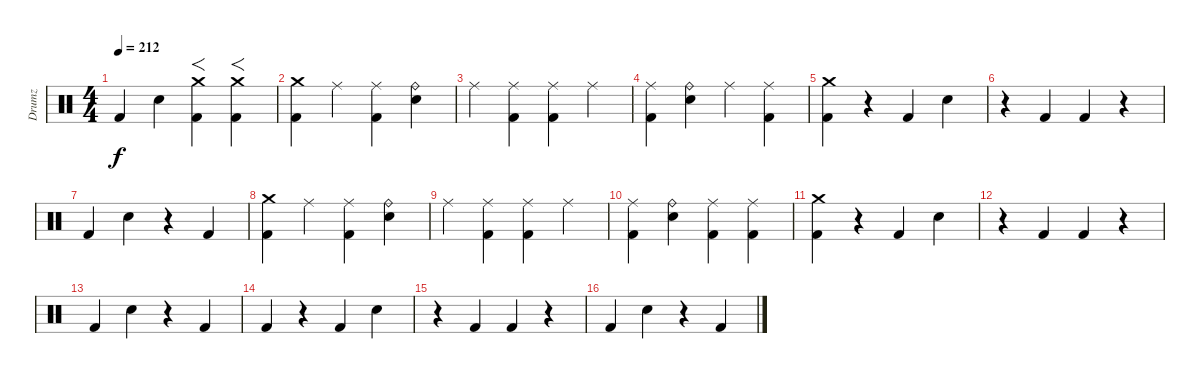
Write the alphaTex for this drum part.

\track ("Drumz" "Drumz") {instrument percussion}
\staff {score}
\articulation defaults
\ts (4 4)
\tempo 212
\clef neutral
\ks c "Kick (hit) 2".4{dy f} "Snare (hit) 2".4
("Kick (hit) 2" "Crash medium (hit)").4{f} ("Kick (hit) 2" "Crash medium (hit)").4{f} |
("Kick (hit) 2" "Crash medium (hit)").4 "Ride (middle)".4 ("Kick (hit) 2" "Ride (middle)").4 ("Snare (hit) 2" "Ride (bell)").4 |
"Ride (middle)".4 ("Kick (hit) 2" "Ride (middle)").4 ("Kick (hit) 2" "Ride (middle)").4 "Ride (middle)".4 |
("Kick (hit) 2" "Ride (middle)").4 ("Snare (hit) 2" "Ride (bell)").4 "Ride (middle)".4 ("Kick (hit) 2" "Ride (middle)").4 |
("Kick (hit) 2" "Crash medium (hit)").4 r.4 "Kick (hit) 2".4 "Snare (hit) 2".4 |
r.4 "Kick (hit) 2".4 "Kick (hit) 2".4 r.4 |
"Kick (hit) 2".4 "Snare (hit) 2".4 r.4 "Kick (hit) 2".4 |
("Kick (hit) 2" "Crash medium (hit)").4 "Ride (middle)".4 ("Kick (hit) 2" "Ride (middle)").4 ("Snare (hit) 2" "Ride (bell)").4 |
"Ride (middle)".4 ("Kick (hit) 2" "Ride (middle)").4 ("Kick (hit) 2" "Ride (middle)").4 "Ride (middle)".4 |
("Kick (hit) 2" "Ride (middle)").4 ("Snare (hit) 2" "Ride (bell)").4 ("Kick (hit) 2" "Ride (middle)").4 ("Kick (hit) 2" "Ride (middle)").4 |
("Kick (hit) 2" "Crash medium (hit)").4 r.4 "Kick (hit) 2".4 "Snare (hit) 2".4 |
r.4 "Kick (hit) 2".4 "Kick (hit) 2".4 r.4 |
"Kick (hit) 2".4 "Snare (hit) 2".4 r.4 "Kick (hit) 2".4 |
"Kick (hit) 2".4 r.4 "Kick (hit) 2".4 "Snare (hit) 2".4 |
r.4 "Kick (hit) 2".4 "Kick (hit) 2".4 r.4 |
"Kick (hit) 2".4 "Snare (hit) 2".4 r.4 "Kick (hit) 2".4
